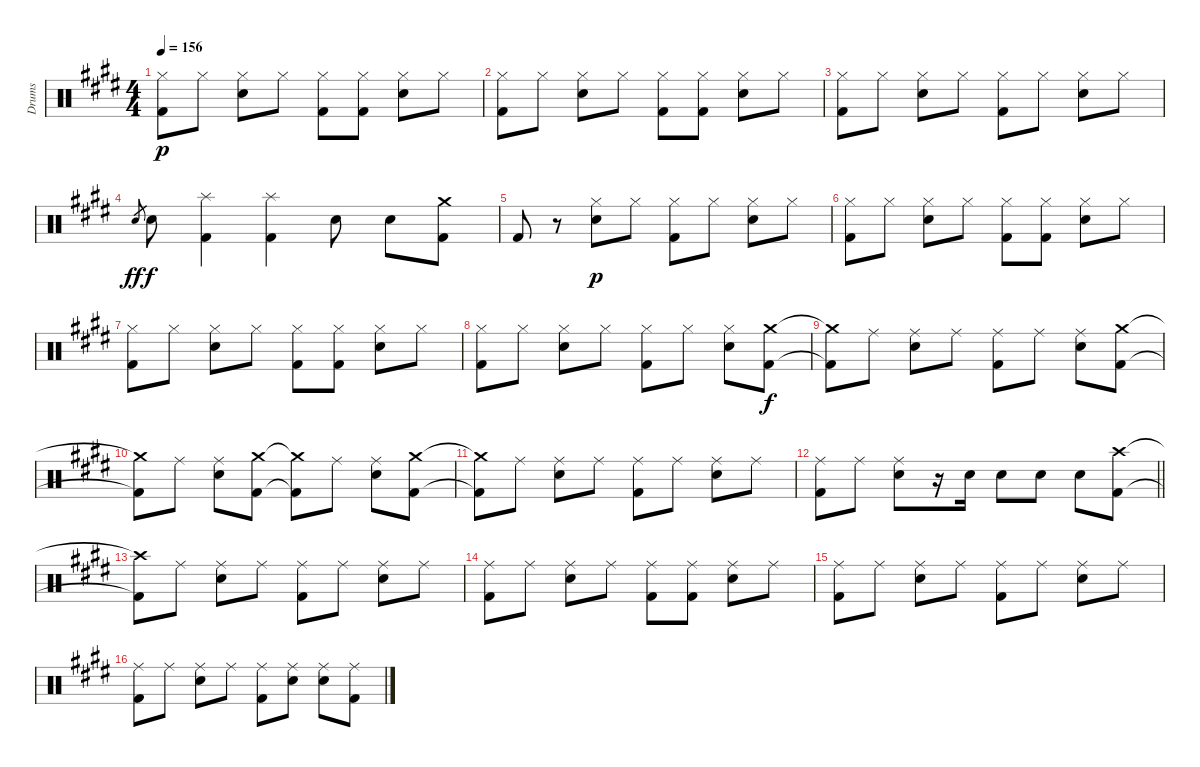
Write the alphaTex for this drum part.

\track ("Drums" "Drums") {instrument percussion}
\staff {score}
\articulation defaults
\ts (4 4)
\tempo 156
\clef neutral
\ks c#minor
("Hi-Hat (closed)" "Kick (hit) 2").8{dy p} "Hi-Hat (closed)".8 ("Hi-Hat (closed)" "Electric Snare (hit)").8 "Hi-Hat (closed)".8 ("Hi-Hat (closed)" "Kick (hit) 2").8 ("Hi-Hat (closed)" "Kick (hit) 2").8 ("Hi-Hat (closed)" "Electric Snare (hit)").8 "Hi-Hat (closed)".8 |
\ks e
("Hi-Hat (closed)" "Kick (hit) 2").8 "Hi-Hat (closed)".8 ("Hi-Hat (closed)" "Electric Snare (hit)").8 "Hi-Hat (closed)".8 ("Hi-Hat (closed)" "Kick (hit) 2").8 ("Hi-Hat (closed)" "Kick (hit) 2").8 ("Hi-Hat (closed)" "Electric Snare (hit)").8 "Hi-Hat (closed)".8 |
\ks c#minor
("Hi-Hat (closed)" "Kick (hit) 2").8 "Hi-Hat (closed)".8 ("Hi-Hat (closed)" "Electric Snare (hit)").8 "Hi-Hat (closed)".8 ("Hi-Hat (closed)" "Kick (hit) 2").8 "Hi-Hat (closed)".8 ("Hi-Hat (closed)" "Electric Snare (hit)").8 "Hi-Hat (closed)".8 |
"Electric Snare (hit)".8{gr dy ff} "Electric Snare (hit)".8{dy f} ("Splash (hit)" "Kick (hit) 2").4 ("Splash (hit)" "Kick (hit) 2").4 "Electric Snare (hit)".8 "Electric Snare (hit)".8 ("Crash medium (hit)" "Kick (hit) 2").8 |
"Kick (hit) 2".8 r.8 ("Hi-Hat (closed)" "Electric Snare (hit)").8{dy p} "Hi-Hat (closed)".8 ("Hi-Hat (closed)" "Kick (hit) 2").8 "Hi-Hat (closed)".8 ("Hi-Hat (closed)" "Electric Snare (hit)").8 "Hi-Hat (closed)".8 |
("Hi-Hat (closed)" "Kick (hit) 2").8 "Hi-Hat (closed)".8 ("Hi-Hat (closed)" "Electric Snare (hit)").8 "Hi-Hat (closed)".8 ("Hi-Hat (closed)" "Kick (hit) 2").8 ("Hi-Hat (closed)" "Kick (hit) 2").8 ("Hi-Hat (closed)" "Electric Snare (hit)").8 "Hi-Hat (closed)".8 |
("Hi-Hat (closed)" "Kick (hit) 2").8 "Hi-Hat (closed)".8 ("Hi-Hat (closed)" "Electric Snare (hit)").8 "Hi-Hat (closed)".8 ("Hi-Hat (closed)" "Kick (hit) 2").8 ("Hi-Hat (closed)" "Kick (hit) 2").8 ("Hi-Hat (closed)" "Electric Snare (hit)").8 "Hi-Hat (closed)".8 |
("Hi-Hat (closed)" "Kick (hit) 2").8 "Hi-Hat (closed)".8 ("Hi-Hat (closed)" "Electric Snare (hit)").8 "Hi-Hat (closed)".8 ("Hi-Hat (closed)" "Kick (hit) 2").8 "Hi-Hat (closed)".8 ("Hi-Hat (closed)" "Electric Snare (hit)").8 ("Crash medium (hit)" "Kick (hit) 2").8{dy f} |
("Crash medium (hit)"{t} "Kick (hit) 2"{t}).8 "Ride (middle)".8 ("Ride (middle)" "Electric Snare (hit)").8 "Ride (middle)".8 ("Ride (middle)" "Kick (hit) 2").8 "Ride (middle)".8 ("Ride (middle)" "Electric Snare (hit)").8 ("Crash medium (hit)" "Kick (hit) 2").8 |
("Crash medium (hit)"{t} "Kick (hit) 2"{t}).8 "Ride (middle)".8 ("Ride (middle)" "Electric Snare (hit)").8 ("Crash medium (hit)" "Kick (hit) 2").8 ("Crash medium (hit)"{t} "Kick (hit) 2"{t}).8 "Ride (middle)".8 ("Ride (middle)" "Electric Snare (hit)").8 ("Crash medium (hit)" "Kick (hit) 2").8 |
\ks e
("Crash medium (hit)"{t} "Kick (hit) 2"{t}).8 "Ride (middle)".8 ("Ride (middle)" "Electric Snare (hit)").8 "Ride (middle)".8 ("Ride (middle)" "Kick (hit) 2").8 "Ride (middle)".8 ("Ride (middle)" "Electric Snare (hit)").8 "Ride (middle)".8 |
\barLineRight lightlight
\ks c#minor
("Ride (middle)" "Kick (hit) 2").8 "Ride (middle)".8 ("Ride (middle)" "Electric Snare (hit)").8 r.16 "Electric Snare (hit)".16 "Electric Snare (hit)".8 "Electric Snare (hit)".8 "Electric Snare (hit)".8 ("Crash high (hit)" "Kick (hit) 2").8 |
("Crash high (hit)"{t} "Kick (hit) 2"{t}).8 "Ride (middle)".8 ("Ride (middle)" "Electric Snare (hit)").8 "Ride (middle)".8 ("Ride (middle)" "Kick (hit) 2").8 "Ride (middle)".8 ("Ride (middle)" "Electric Snare (hit)").8 "Ride (middle)".8 |
\ks e
("Ride (middle)" "Kick (hit) 2").8 "Ride (middle)".8 ("Ride (middle)" "Electric Snare (hit)").8 "Ride (middle)".8 ("Ride (middle)" "Kick (hit) 2").8 ("Ride (middle)" "Kick (hit) 2").8 ("Ride (middle)" "Electric Snare (hit)").8 "Ride (middle)".8 |
\ks c#minor
("Ride (middle)" "Kick (hit) 2").8 "Ride (middle)".8 ("Ride (middle)" "Electric Snare (hit)").8 "Ride (middle)".8 ("Ride (middle)" "Kick (hit) 2").8 "Ride (middle)".8 ("Ride (middle)" "Electric Snare (hit)").8 "Ride (middle)".8 |
("Ride (middle)" "Kick (hit) 2").8 "Ride (middle)".8 ("Ride (middle)" "Electric Snare (hit)").8 "Ride (middle)".8 ("Ride (middle)" "Kick (hit) 2").8 ("Ride (middle)" "Electric Snare (hit)").8 ("Ride (middle)" "Electric Snare (hit)").8 ("Ride (middle)" "Kick (hit) 2").8
